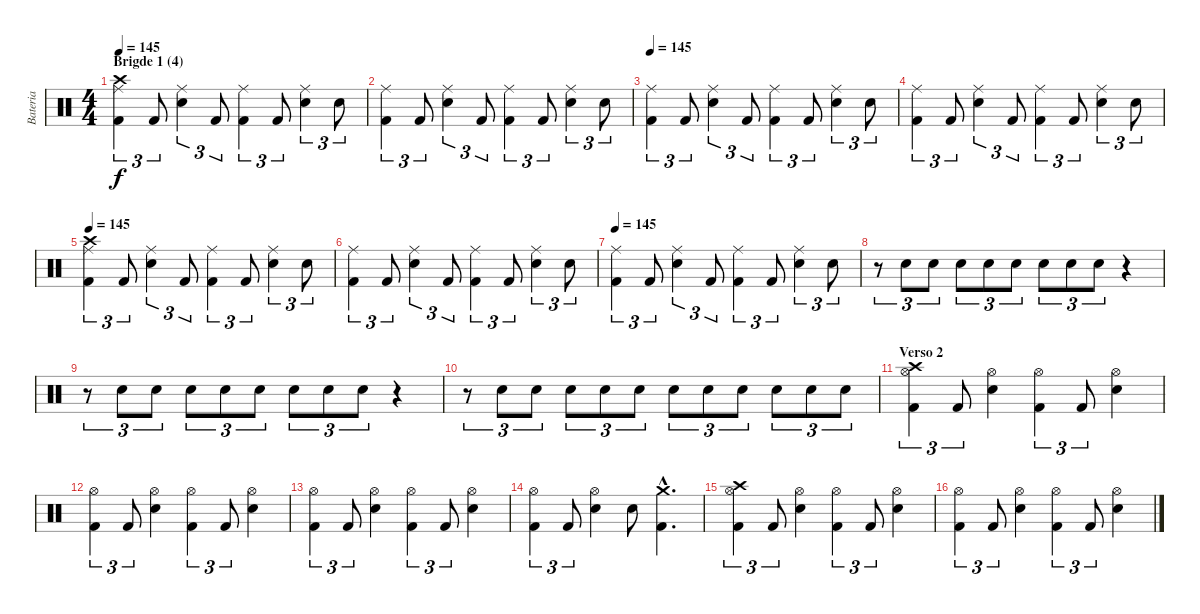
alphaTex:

\track ("Bateria" "Bateria") {instrument percussion}
\staff {score}
\articulation defaults
\ts (4 4)
\section ("" "Brigde 1 (4)")
\tempo 145
\clef neutral
\ks c
("Crash high (hit)" "Ride (middle)" "Kick (hit) 2").4{tu (3 2) dy f} "Kick (hit) 2".8{tu (3 2)} ("Ride (middle)" "Snare (hit) 2").4{tu (3 2)} "Kick (hit) 2".8{tu (3 2)} ("Ride (middle)" "Kick (hit) 2").4{tu (3 2)} "Kick (hit) 2".8{tu (3 2)} ("Ride (middle)" "Snare (hit) 2").4{tu (3 2)} "Snare (hit) 2".8{tu (3 2)} |
("Ride (middle)" "Kick (hit) 2").4{tu (3 2)} "Kick (hit) 2".8{tu (3 2)} ("Ride (middle)" "Snare (hit) 2").4{tu (3 2)} "Kick (hit) 2".8{tu (3 2)} ("Ride (middle)" "Kick (hit) 2").4{tu (3 2)} "Kick (hit) 2".8{tu (3 2)} ("Ride (middle)" "Snare (hit) 2").4{tu (3 2)} "Snare (hit) 2".8{tu (3 2)} |
\tempo 145
("Ride (middle)" "Kick (hit) 2").4{tu (3 2)} "Kick (hit) 2".8{tu (3 2)} ("Ride (middle)" "Snare (hit) 2").4{tu (3 2)} "Kick (hit) 2".8{tu (3 2)} ("Ride (middle)" "Kick (hit) 2").4{tu (3 2)} "Kick (hit) 2".8{tu (3 2)} ("Ride (middle)" "Snare (hit) 2").4{tu (3 2)} "Snare (hit) 2".8{tu (3 2)} |
("Ride (middle)" "Kick (hit) 2").4{tu (3 2)} "Kick (hit) 2".8{tu (3 2)} ("Ride (middle)" "Snare (hit) 2").4{tu (3 2)} "Kick (hit) 2".8{tu (3 2)} ("Ride (middle)" "Kick (hit) 2").4{tu (3 2)} "Kick (hit) 2".8{tu (3 2)} ("Ride (middle)" "Snare (hit) 2").4{tu (3 2)} "Snare (hit) 2".8{tu (3 2)} |
\tempo 145
("Crash high (hit)" "Ride (middle)" "Kick (hit) 2").4{tu (3 2)} "Kick (hit) 2".8{tu (3 2)} ("Ride (middle)" "Snare (hit) 2").4{tu (3 2)} "Kick (hit) 2".8{tu (3 2)} ("Ride (middle)" "Kick (hit) 2").4{tu (3 2)} "Kick (hit) 2".8{tu (3 2)} ("Ride (middle)" "Snare (hit) 2").4{tu (3 2)} "Snare (hit) 2".8{tu (3 2)} |
("Ride (middle)" "Kick (hit) 2").4{tu (3 2)} "Kick (hit) 2".8{tu (3 2)} ("Ride (middle)" "Snare (hit) 2").4{tu (3 2)} "Kick (hit) 2".8{tu (3 2)} ("Ride (middle)" "Kick (hit) 2").4{tu (3 2)} "Kick (hit) 2".8{tu (3 2)} ("Ride (middle)" "Snare (hit) 2").4{tu (3 2)} "Snare (hit) 2".8{tu (3 2)} |
\tempo 145
("Ride (middle)" "Kick (hit) 2").4{tu (3 2)} "Kick (hit) 2".8{tu (3 2)} ("Ride (middle)" "Snare (hit) 2").4{tu (3 2)} "Kick (hit) 2".8{tu (3 2)} ("Ride (middle)" "Kick (hit) 2").4{tu (3 2)} "Kick (hit) 2".8{tu (3 2)} ("Ride (middle)" "Snare (hit) 2").4{tu (3 2)} "Snare (hit) 2".8{tu (3 2)} |
r.8{tu (3 2)} "Snare (hit) 2".8{tu (3 2)} "Snare (hit) 2".8{tu (3 2)} "Snare (hit) 2".8{tu (3 2)} "Snare (hit) 2".8{tu (3 2)} "Snare (hit) 2".8{tu (3 2)} "Snare (hit) 2".8{tu (3 2)} "Snare (hit) 2".8{tu (3 2)} "Snare (hit) 2".8{tu (3 2)} r.4 |
r.8{tu (3 2)} "Snare (hit) 2".8{tu (3 2)} "Snare (hit) 2".8{tu (3 2)} "Snare (hit) 2".8{tu (3 2)} "Snare (hit) 2".8{tu (3 2)} "Snare (hit) 2".8{tu (3 2)} "Snare (hit) 2".8{tu (3 2)} "Snare (hit) 2".8{tu (3 2)} "Snare (hit) 2".8{tu (3 2)} r.4 |
r.8{tu (3 2)} "Snare (hit) 2".8{tu (3 2)} "Snare (hit) 2".8{tu (3 2)} "Snare (hit) 2".8{tu (3 2)} "Snare (hit) 2".8{tu (3 2)} "Snare (hit) 2".8{tu (3 2)} "Snare (hit) 2".8{tu (3 2)} "Snare (hit) 2".8{tu (3 2)} "Snare (hit) 2".8{tu (3 2)} "Snare (hit) 2".8{tu (3 2)} "Snare (hit) 2".8{tu (3 2)} "Snare (hit) 2".8{tu (3 2)} |
\section ("" "Verso 2")
("Crash high (hit)" "Hi-Hat (open)" "Kick (hit) 2").4{tu (3 2)} "Kick (hit) 2".8{tu (3 2)} ("Hi-Hat (open)" "Snare (hit) 2").4 ("Hi-Hat (open)" "Kick (hit) 2").4{tu (3 2)} "Kick (hit) 2".8{tu (3 2)} ("Hi-Hat (open)" "Snare (hit) 2").4 |
("Hi-Hat (open)" "Kick (hit) 2").4{tu (3 2)} "Kick (hit) 2".8{tu (3 2)} ("Hi-Hat (open)" "Snare (hit) 2").4 ("Hi-Hat (open)" "Kick (hit) 2").4{tu (3 2)} "Kick (hit) 2".8{tu (3 2)} ("Hi-Hat (open)" "Snare (hit) 2").4 |
("Hi-Hat (open)" "Kick (hit) 2").4{tu (3 2)} "Kick (hit) 2".8{tu (3 2)} ("Hi-Hat (open)" "Snare (hit) 2").4 ("Hi-Hat (open)" "Kick (hit) 2").4{tu (3 2)} "Kick (hit) 2".8{tu (3 2)} ("Hi-Hat (open)" "Snare (hit) 2").4 |
("Hi-Hat (open)" "Kick (hit) 2").4{tu (3 2)} "Kick (hit) 2".8{tu (3 2)} ("Hi-Hat (open)" "Snare (hit) 2").4 "Snare (hit) 2".8 ("Crash medium (hit)"{hac} "Kick (hit) 2"{hac}).4{d} |
("Crash high (hit)" "Hi-Hat (open)" "Kick (hit) 2").4{tu (3 2)} "Kick (hit) 2".8{tu (3 2)} ("Hi-Hat (open)" "Snare (hit) 2").4 ("Hi-Hat (open)" "Kick (hit) 2").4{tu (3 2)} "Kick (hit) 2".8{tu (3 2)} ("Hi-Hat (open)" "Snare (hit) 2").4 |
("Hi-Hat (open)" "Kick (hit) 2").4{tu (3 2)} "Kick (hit) 2".8{tu (3 2)} ("Hi-Hat (open)" "Snare (hit) 2").4 ("Hi-Hat (open)" "Kick (hit) 2").4{tu (3 2)} "Kick (hit) 2".8{tu (3 2)} ("Hi-Hat (open)" "Snare (hit) 2").4
